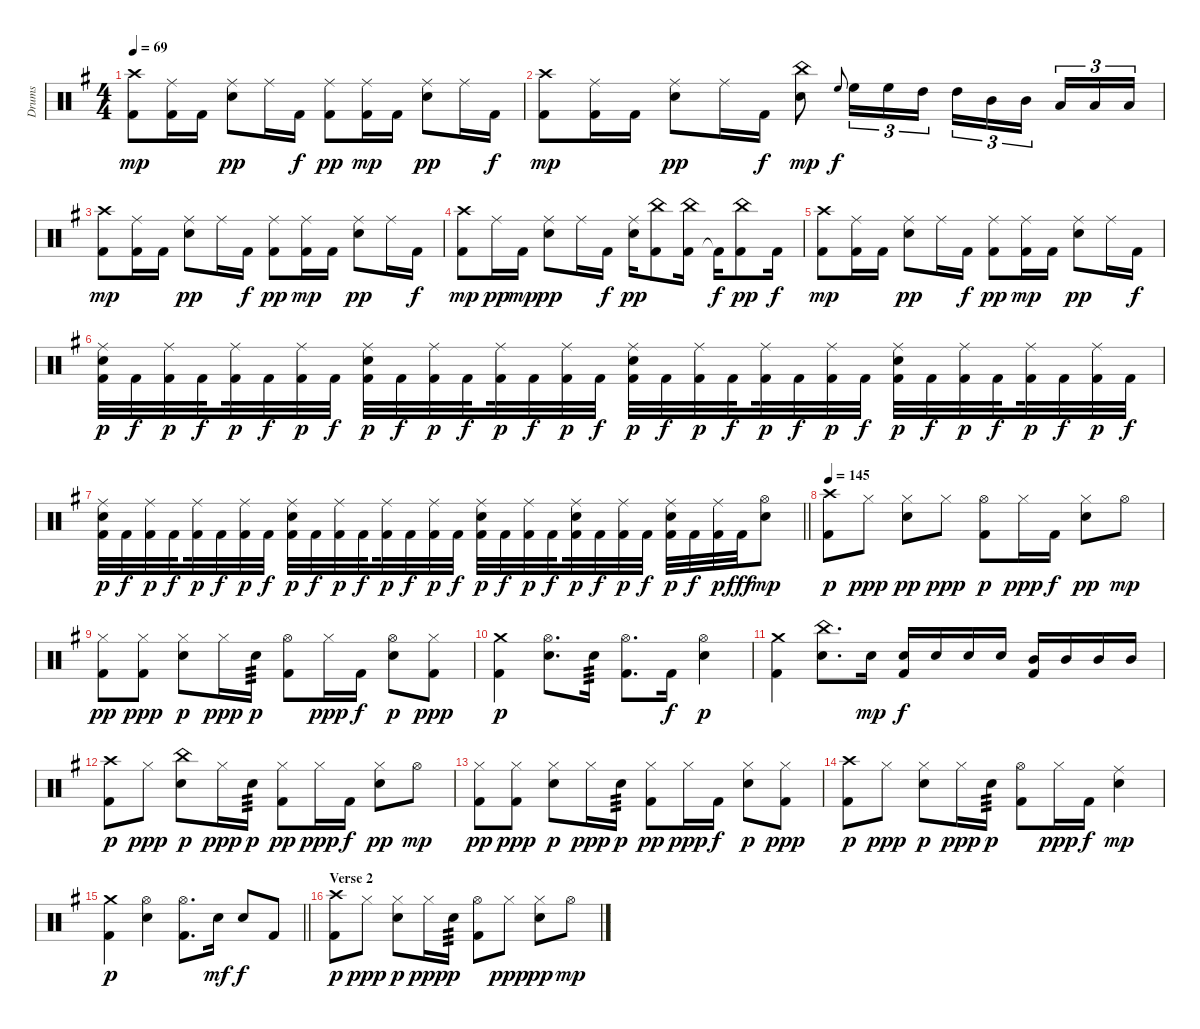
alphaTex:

\track ("Drums" "Drums") {instrument percussion}
\staff {score}
\articulation defaults
\ts (4 4)
\tempo 69
\clef neutral
\ks g
("Crash high (hit)" "Kick (hit) 2").8{dy mp} ("Ride (middle)" "Kick (hit) 2").16 "Kick (hit) 2".16 ("Ride (middle)" "Electric Snare (hit)").8{dy pp} "Ride (middle)".16 "Kick (hit) 2".16{dy f} ("Ride (middle)" "Kick (hit) 2").8{dy pp} ("Ride (middle)" "Kick (hit) 2").16{dy mp} "Kick (hit) 2".16 ("Ride (middle)" "Electric Snare (hit)").8{dy pp} "Ride (middle)".16 "Kick (hit) 2".16{dy f} |
("Crash high (hit)" "Kick (hit) 2").8{dy mp} ("Ride (middle)" "Kick (hit) 2").16 "Kick (hit) 2".16 ("Ride (middle)" "Electric Snare (hit)").8{dy pp} "Ride (middle)".16 "Kick (hit) 2".16{dy f} ("Electric Snare (hit)" "China (hit)").8{dy mp} "High Floor Tom (hit)".8{gr onbeat dy f} "High Floor Tom (hit)".16{tu (3 2)} "High Floor Tom (hit)".16{tu (3 2)} "High Tom (hit)".16{tu (3 2)} "High Tom (hit)".16{tu (3 2)} "Mid Tom (hit)".16{tu (3 2)} "Mid Tom (hit)".16{tu (3 2) beam splitsecondary} "Low Tom (hit)".16{tu (3 2)} "Low Tom (hit)".16{tu (3 2)} "Low Tom (hit)".16{tu (3 2)} |
("Crash high (hit)" "Kick (hit) 2").8{dy mp} ("Ride (middle)" "Kick (hit) 2").16 "Kick (hit) 2".16 ("Ride (middle)" "Electric Snare (hit)").8{dy pp} "Ride (middle)".16 "Kick (hit) 2".16{dy f} ("Ride (middle)" "Kick (hit) 2").8{dy pp} ("Ride (middle)" "Kick (hit) 2").16{dy mp} "Kick (hit) 2".16 ("Ride (middle)" "Electric Snare (hit)").8{dy pp} "Ride (middle)".16 "Kick (hit) 2".16{dy f} |
("Crash high (hit)" "Kick (hit) 2").8{dy mp} "Ride (middle)".16{dy pp} "Kick (hit) 2".16{dy mp} ("Ride (middle)" "Electric Snare (hit)").8{dy pp} "Ride (middle)".16 "Kick (hit) 2".16{dy f} ("Ride (middle)" "Electric Snare (hit)").16{dy pp} ("Kick (hit) 2" "China (hit)").8 ("Kick (hit) 2" "China (hit)").16 "Kick (hit) 2"{t}.16{dy f} ("Kick (hit) 2" "China (hit)").8{dy pp} "Kick (hit) 2".16{dy f} |
("Crash high (hit)" "Kick (hit) 2").8{dy mp} ("Ride (middle)" "Kick (hit) 2").16 "Kick (hit) 2".16 ("Ride (middle)" "Electric Snare (hit)").8{dy pp} "Ride (middle)".16 "Kick (hit) 2".16{dy f} ("Ride (middle)" "Kick (hit) 2").8{dy pp} ("Ride (middle)" "Kick (hit) 2").16{dy mp} "Kick (hit) 2".16 ("Ride (middle)" "Electric Snare (hit)").8{dy pp} "Ride (middle)".16 "Kick (hit) 2".16{dy f} |
("Kick (hit) 2" "Electric Snare (hit)" "Ride (middle)").32{dy p} "Kick (hit) 2".32{dy f} ("Kick (hit) 2" "Ride (middle)").32{dy p} "Kick (hit) 2".32{dy f beam splitsecondary} ("Kick (hit) 2" "Ride (middle)").32{dy p} "Kick (hit) 2".32{dy f} ("Kick (hit) 2" "Ride (middle)").32{dy p} "Kick (hit) 2".32{dy f} ("Kick (hit) 2" "Electric Snare (hit)" "Ride (middle)").32{dy p} "Kick (hit) 2".32{dy f} ("Kick (hit) 2" "Ride (middle)").32{dy p} "Kick (hit) 2".32{dy f beam splitsecondary} ("Kick (hit) 2" "Ride (middle)").32{dy p} "Kick (hit) 2".32{dy f} ("Kick (hit) 2" "Ride (middle)").32{dy p} "Kick (hit) 2".32{dy f} ("Kick (hit) 2" "Electric Snare (hit)" "Ride (middle)").32{dy p} "Kick (hit) 2".32{dy f} ("Kick (hit) 2" "Ride (middle)").32{dy p} "Kick (hit) 2".32{dy f beam splitsecondary} ("Kick (hit) 2" "Ride (middle)").32{dy p} "Kick (hit) 2".32{dy f} ("Kick (hit) 2" "Ride (middle)").32{dy p} "Kick (hit) 2".32{dy f} ("Kick (hit) 2" "Electric Snare (hit)" "Ride (middle)").32{dy p} "Kick (hit) 2".32{dy f} ("Kick (hit) 2" "Ride (middle)").32{dy p} "Kick (hit) 2".32{dy f beam splitsecondary} ("Kick (hit) 2" "Ride (middle)").32{dy p} "Kick (hit) 2".32{dy f} ("Kick (hit) 2" "Ride (middle)").32{dy p} "Kick (hit) 2".32{dy f} |
\barLineRight lightlight
("Kick (hit) 2" "Electric Snare (hit)" "Ride (middle)").32{dy p} "Kick (hit) 2".32{dy f} ("Kick (hit) 2" "Ride (middle)").32{dy p} "Kick (hit) 2".32{dy f beam splitsecondary} ("Kick (hit) 2" "Ride (middle)").32{dy p} "Kick (hit) 2".32{dy f} ("Kick (hit) 2" "Ride (middle)").32{dy p} "Kick (hit) 2".32{dy f} ("Kick (hit) 2" "Electric Snare (hit)" "Ride (middle)").32{dy p} "Kick (hit) 2".32{dy f} ("Kick (hit) 2" "Ride (middle)").32{dy p} "Kick (hit) 2".32{dy f beam splitsecondary} ("Kick (hit) 2" "Ride (middle)").32{dy p} "Kick (hit) 2".32{dy f} ("Kick (hit) 2" "Ride (middle)").32{dy p} "Kick (hit) 2".32{dy f} ("Kick (hit) 2" "Electric Snare (hit)" "Ride (middle)").32{dy p} "Kick (hit) 2".32{dy f} ("Kick (hit) 2" "Ride (middle)").32{dy p} "Kick (hit) 2".32{dy f beam splitsecondary} ("Kick (hit) 2" "Ride (middle)" "Electric Snare (hit)").32{dy p} "Kick (hit) 2".32{dy f} ("Kick (hit) 2" "Ride (middle)").32{dy p} "Kick (hit) 2".32{dy f} ("Kick (hit) 2" "Electric Snare (hit)" "Ride (middle)").32{dy p} "Kick (hit) 2".32{dy f} ("Kick (hit) 2" "Ride (middle)").32{dy p} "Kick (hit) 2".32{dy fff} ("Electric Snare (hit)" "Hi-Hat (open)").8{dy mp} |
\tempo 145
("Crash high (hit)" "Kick (hit) 2").8{dy p} "Hi-Hat (closed)".8{dy ppp} ("Hi-Hat (closed)" "Electric Snare (hit)").8{dy pp} "Hi-Hat (closed)".8{dy ppp} ("Hi-Hat (open)" "Kick (hit) 2").8{dy p} "Hi-Hat (closed)".16{dy ppp} "Kick (hit) 2".16{dy f} ("Hi-Hat (closed)" "Electric Snare (hit)").8{dy pp} "Hi-Hat (open)".8{dy mp} |
("Hi-Hat (closed)" "Kick (hit) 2").8{dy pp} ("Hi-Hat (closed)" "Kick (hit) 2").8{dy ppp} ("Hi-Hat (closed)" "Electric Snare (hit)").8{dy p} "Hi-Hat (closed)".16{dy ppp} "Electric Snare (hit)".16{tp 3 dy p} ("Hi-Hat (open)" "Kick (hit) 2").8 "Hi-Hat (closed)".16{dy ppp} "Kick (hit) 2".16{dy f} ("Hi-Hat (open)" "Electric Snare (hit)").8{dy p} ("Hi-Hat (closed)" "Kick (hit) 2").8{dy ppp} |
("Crash medium (hit)" "Kick (hit) 2").4{dy p} ("Hi-Hat (open)" "Electric Snare (hit)").8{d} "Electric Snare (hit)".16{tp 3} ("Hi-Hat (open)" "Kick (hit) 2").8{d} "Kick (hit) 2".16{dy f} ("Hi-Hat (open)" "Electric Snare (hit)").4{dy p} |
("Crash medium (hit)" "Kick (hit) 2").4 ("China (hit)" "Electric Snare (hit)").8{d} "Electric Snare (hit)".16{dy mp} ("Electric Snare (hit)" "Kick (hit) 2").16{dy f} "Electric Snare (hit)".16 "Electric Snare (hit)".16 "Electric Snare (hit)".16 ("Mid Tom (hit)" "Kick (hit) 2").16 "Mid Tom (hit)".16 "Mid Tom (hit)".16 "Mid Tom (hit)".16 |
("Crash high (hit)" "Kick (hit) 2").8{dy p} "Hi-Hat (closed)".8{dy ppp} ("China (hit)" "Electric Snare (hit)").8{dy p} "Hi-Hat (closed)".16{dy ppp} "Electric Snare (hit)".16{tp 3 dy p} ("Hi-Hat (closed)" "Kick (hit) 2").8{dy pp} "Hi-Hat (closed)".16{dy ppp} "Kick (hit) 2".16{dy f} ("Hi-Hat (closed)" "Electric Snare (hit)").8{dy pp} "Hi-Hat (open)".8{dy mp} |
("Hi-Hat (closed)" "Kick (hit) 2").8{dy pp} ("Hi-Hat (closed)" "Kick (hit) 2").8{dy ppp} ("Hi-Hat (closed)" "Electric Snare (hit)").8{dy p} "Hi-Hat (closed)".16{dy ppp} "Electric Snare (hit)".16{tp 3 dy p} ("Hi-Hat (closed)" "Kick (hit) 2").8{dy pp} "Hi-Hat (closed)".16{dy ppp} "Kick (hit) 2".16{dy f} ("Hi-Hat (closed)" "Electric Snare (hit)").8{dy p} ("Hi-Hat (closed)" "Kick (hit) 2").8{dy ppp} |
("Crash high (hit)" "Kick (hit) 2").8{dy p} "Hi-Hat (closed)".8{dy ppp} ("Hi-Hat (closed)" "Electric Snare (hit)").8{dy p} "Hi-Hat (closed)".16{dy ppp} "Electric Snare (hit)".16{tp 3 dy p} ("Hi-Hat (open)" "Kick (hit) 2").8 "Hi-Hat (closed)".16{dy ppp} "Kick (hit) 2".16{dy f} ("Electric Snare (hit)" "Ride (middle)").4{dy mp} |
\barLineRight lightlight
("Crash medium (hit)" "Kick (hit) 2").4{dy p} ("Hi-Hat (open)" "Electric Snare (hit)").4 ("Hi-Hat (open)" "Kick (hit) 2").8{d} "Electric Snare (hit)".16{dy mf} "Electric Snare (hit)".8{dy f} "Kick (hit) 2".8 |
\section ("" "Verse 2")
("Crash high (hit)" "Kick (hit) 2").8{dy p} "Hi-Hat (closed)".8{dy ppp} ("Hi-Hat (closed)" "Electric Snare (hit)").8{dy p} "Hi-Hat (closed)".16{dy ppp} "Electric Snare (hit)".16{tp 3 dy p} ("Hi-Hat (open)" "Kick (hit) 2").8 "Hi-Hat (closed)".8{dy ppp} ("Hi-Hat (closed)" "Electric Snare (hit)").8{dy pp} "Hi-Hat (open)".8{dy mp}
